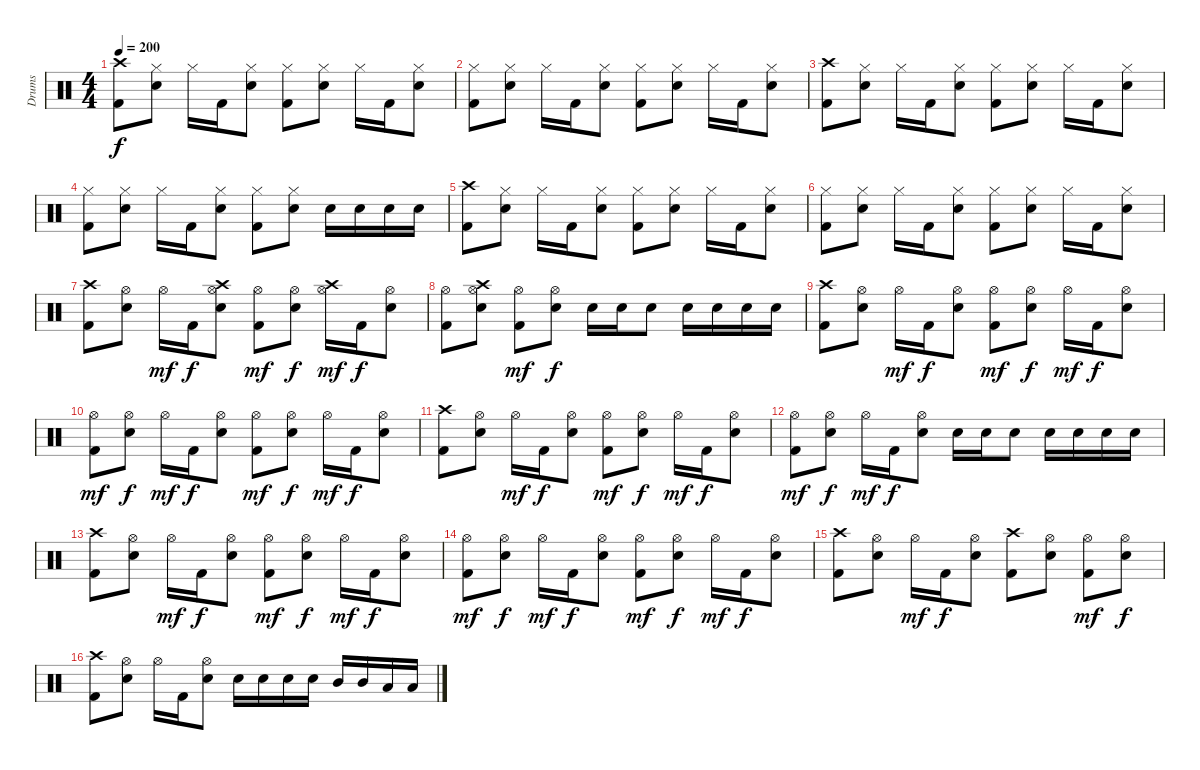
\track ("Drums" "Drums") {instrument percussion}
\staff {score}
\articulation defaults
\ts (4 4)
\tempo 200
\clef neutral
\ks c
("Crash high (hit)" "Kick (hit) 2").8{dy f} ("Hi-Hat (closed)" "Electric Snare (hit)").8 "Hi-Hat (closed)".16 "Kick (hit) 2".16 ("Hi-Hat (closed)" "Electric Snare (hit)").8 ("Hi-Hat (closed)" "Kick (hit) 2").8 ("Hi-Hat (closed)" "Electric Snare (hit)").8 "Hi-Hat (closed)".16 "Kick (hit) 2".16 ("Hi-Hat (closed)" "Electric Snare (hit)").8 |
("Hi-Hat (closed)" "Kick (hit) 2").8 ("Hi-Hat (closed)" "Electric Snare (hit)").8 "Hi-Hat (closed)".16 "Kick (hit) 2".16 ("Hi-Hat (closed)" "Electric Snare (hit)").8 ("Hi-Hat (closed)" "Kick (hit) 2").8 ("Hi-Hat (closed)" "Electric Snare (hit)").8 "Hi-Hat (closed)".16 "Kick (hit) 2".16 ("Hi-Hat (closed)" "Electric Snare (hit)").8 |
("Crash high (hit)" "Kick (hit) 2").8 ("Hi-Hat (closed)" "Electric Snare (hit)").8 "Hi-Hat (closed)".16 "Kick (hit) 2".16 ("Hi-Hat (closed)" "Electric Snare (hit)").8 ("Hi-Hat (closed)" "Kick (hit) 2").8 ("Hi-Hat (closed)" "Electric Snare (hit)").8 "Hi-Hat (closed)".16 "Kick (hit) 2".16 ("Hi-Hat (closed)" "Electric Snare (hit)").8 |
("Hi-Hat (closed)" "Kick (hit) 2").8 ("Hi-Hat (closed)" "Electric Snare (hit)").8 "Hi-Hat (closed)".16 "Kick (hit) 2".16 ("Hi-Hat (closed)" "Electric Snare (hit)").8 ("Hi-Hat (closed)" "Kick (hit) 2").8 ("Hi-Hat (closed)" "Electric Snare (hit)").8 "Electric Snare (hit)".16 "Electric Snare (hit)".16 "Electric Snare (hit)".16 "Electric Snare (hit)".16 |
("Crash high (hit)" "Kick (hit) 2").8 ("Hi-Hat (closed)" "Electric Snare (hit)").8 "Hi-Hat (closed)".16 "Kick (hit) 2".16 ("Hi-Hat (closed)" "Electric Snare (hit)").8 ("Hi-Hat (closed)" "Kick (hit) 2").8 ("Hi-Hat (closed)" "Electric Snare (hit)").8 "Hi-Hat (closed)".16 "Kick (hit) 2".16 ("Hi-Hat (closed)" "Electric Snare (hit)").8 |
("Hi-Hat (closed)" "Kick (hit) 2").8 ("Hi-Hat (closed)" "Electric Snare (hit)").8 "Hi-Hat (closed)".16 "Kick (hit) 2".16 ("Hi-Hat (closed)" "Electric Snare (hit)").8 ("Hi-Hat (closed)" "Kick (hit) 2").8 ("Hi-Hat (closed)" "Electric Snare (hit)").8 "Hi-Hat (closed)".16 "Kick (hit) 2".16 ("Hi-Hat (closed)" "Electric Snare (hit)").8 |
("Crash high (hit)" "Kick (hit) 2").8 ("Hi-Hat (open)" "Electric Snare (hit)").8 "Hi-Hat (open)".16{dy mf} "Kick (hit) 2".16{dy f} ("Crash high (hit)" "Hi-Hat (open)" "Electric Snare (hit)").8 ("Hi-Hat (open)" "Kick (hit) 2").8{dy mf} ("Hi-Hat (open)" "Electric Snare (hit)").8{dy f} ("Crash high (hit)" "Hi-Hat (open)").16{dy mf} "Kick (hit) 2".16{dy f} ("Hi-Hat (open)" "Electric Snare (hit)").8 |
("Hi-Hat (open)" "Kick (hit) 2").8 ("Crash high (hit)" "Hi-Hat (open)" "Electric Snare (hit)").8 ("Hi-Hat (open)" "Kick (hit) 2").8{dy mf} ("Hi-Hat (open)" "Electric Snare (hit)").8{dy f} "Electric Snare (hit)".16 "Electric Snare (hit)".16 "Electric Snare (hit)".8 "Electric Snare (hit)".16 "Electric Snare (hit)".16 "Electric Snare (hit)".16 "Electric Snare (hit)".16 |
("Crash high (hit)" "Kick (hit) 2").8 ("Hi-Hat (open)" "Electric Snare (hit)").8 "Hi-Hat (open)".16{dy mf} "Kick (hit) 2".16{dy f} ("Hi-Hat (open)" "Electric Snare (hit)").8 ("Hi-Hat (open)" "Kick (hit) 2").8{dy mf} ("Hi-Hat (open)" "Electric Snare (hit)").8{dy f} "Hi-Hat (open)".16{dy mf} "Kick (hit) 2".16{dy f} ("Hi-Hat (open)" "Electric Snare (hit)").8 |
("Hi-Hat (open)" "Kick (hit) 2").8{dy mf} ("Hi-Hat (open)" "Electric Snare (hit)").8{dy f} "Hi-Hat (open)".16{dy mf} "Kick (hit) 2".16{dy f} ("Hi-Hat (open)" "Electric Snare (hit)").8 ("Hi-Hat (open)" "Kick (hit) 2").8{dy mf} ("Hi-Hat (open)" "Electric Snare (hit)").8{dy f} "Hi-Hat (open)".16{dy mf} "Kick (hit) 2".16{dy f} ("Hi-Hat (open)" "Electric Snare (hit)").8 |
("Crash high (hit)" "Kick (hit) 2").8 ("Hi-Hat (open)" "Electric Snare (hit)").8 "Hi-Hat (open)".16{dy mf} "Kick (hit) 2".16{dy f} ("Hi-Hat (open)" "Electric Snare (hit)").8 ("Hi-Hat (open)" "Kick (hit) 2").8{dy mf} ("Hi-Hat (open)" "Electric Snare (hit)").8{dy f} "Hi-Hat (open)".16{dy mf} "Kick (hit) 2".16{dy f} ("Hi-Hat (open)" "Electric Snare (hit)").8 |
("Hi-Hat (open)" "Kick (hit) 2").8{dy mf} ("Hi-Hat (open)" "Electric Snare (hit)").8{dy f} "Hi-Hat (open)".16{dy mf} "Kick (hit) 2".16{dy f} ("Hi-Hat (open)" "Electric Snare (hit)").8 "Electric Snare (hit)".16 "Electric Snare (hit)".16 "Electric Snare (hit)".8 "Electric Snare (hit)".16 "Electric Snare (hit)".16 "Electric Snare (hit)".16 "Electric Snare (hit)".16 |
("Crash high (hit)" "Kick (hit) 2").8 ("Hi-Hat (open)" "Electric Snare (hit)").8 "Hi-Hat (open)".16{dy mf} "Kick (hit) 2".16{dy f} ("Hi-Hat (open)" "Electric Snare (hit)").8 ("Hi-Hat (open)" "Kick (hit) 2").8{dy mf} ("Hi-Hat (open)" "Electric Snare (hit)").8{dy f} "Hi-Hat (open)".16{dy mf} "Kick (hit) 2".16{dy f} ("Hi-Hat (open)" "Electric Snare (hit)").8 |
("Hi-Hat (open)" "Kick (hit) 2").8{dy mf} ("Hi-Hat (open)" "Electric Snare (hit)").8{dy f} "Hi-Hat (open)".16{dy mf} "Kick (hit) 2".16{dy f} ("Hi-Hat (open)" "Electric Snare (hit)").8 ("Hi-Hat (open)" "Kick (hit) 2").8{dy mf} ("Hi-Hat (open)" "Electric Snare (hit)").8{dy f} "Hi-Hat (open)".16{dy mf} "Kick (hit) 2".16{dy f} ("Hi-Hat (open)" "Electric Snare (hit)").8 |
("Crash high (hit)" "Kick (hit) 2").8 ("Hi-Hat (open)" "Electric Snare (hit)").8 "Hi-Hat (open)".16{dy mf} "Kick (hit) 2".16{dy f} ("Hi-Hat (open)" "Electric Snare (hit)").8 ("Crash high (hit)" "Kick (hit) 2").8 ("Hi-Hat (open)" "Electric Snare (hit)").8 ("Hi-Hat (open)" "Kick (hit) 2").8{dy mf} ("Hi-Hat (open)" "Electric Snare (hit)").8{dy f} |
("Crash high (hit)" "Kick (hit) 2").8 ("Hi-Hat (open)" "Electric Snare (hit)").8 "Hi-Hat (open)".16 "Kick (hit) 2".16 ("Hi-Hat (open)" "Electric Snare (hit)").8 "Electric Snare (hit)".16 "Electric Snare (hit)".16 "Electric Snare (hit)".16 "Electric Snare (hit)".16 "Mid Tom (hit)".16 "Mid Tom (hit)".16 "Low Tom (hit)".16 "Low Tom (hit)".16
